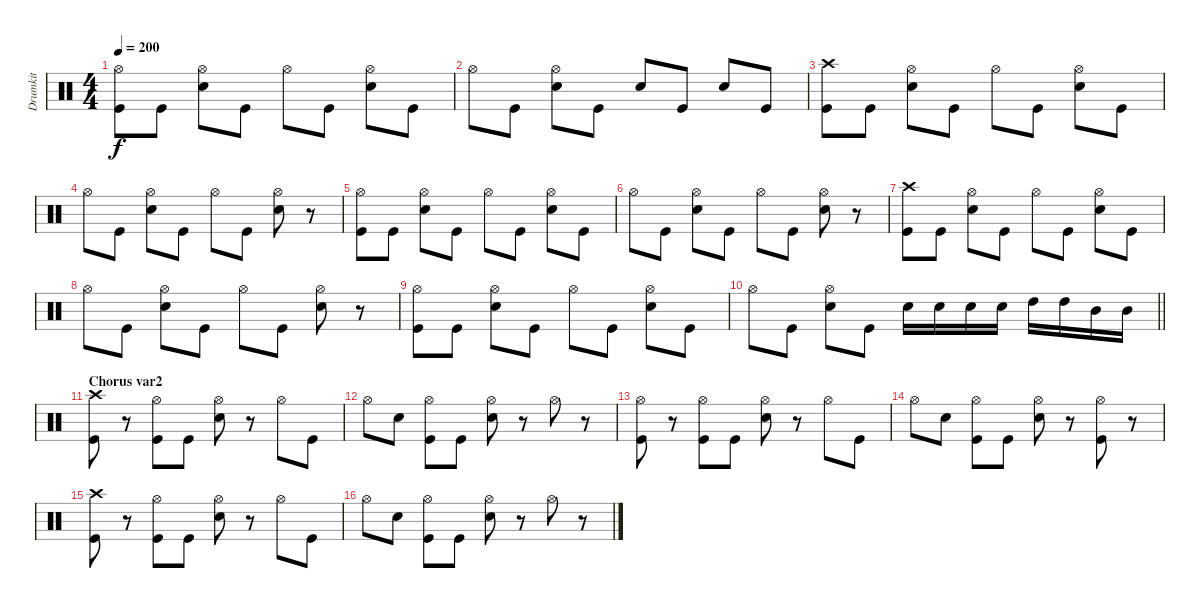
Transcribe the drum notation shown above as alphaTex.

\track ("Drumkit" "Drumkit") {instrument percussion}
\staff {score}
\articulation defaults
\ts (4 4)
\tempo 200
\clef neutral
\ks c
("Hi-Hat (open)" "Kick (hit)").8{dy f} "Kick (hit)".8 ("Hi-Hat (open)" "Snare (hit) 2").8 "Kick (hit)".8 "Hi-Hat (open)".8 "Kick (hit)".8 ("Snare (hit) 2" "Hi-Hat (open)").8 "Kick (hit)".8 |
"Hi-Hat (open)".8 "Kick (hit)".8 ("Hi-Hat (open)" "Snare (hit) 2").8 "Kick (hit)".8 "Snare (hit) 2".8 "Kick (hit)".8 "Snare (hit) 2".8 "Kick (hit)".8 |
("Crash high (hit)" "Kick (hit)").8 "Kick (hit)".8 ("Hi-Hat (open)" "Snare (hit) 2").8 "Kick (hit)".8 "Hi-Hat (open)".8 "Kick (hit)".8 ("Snare (hit) 2" "Hi-Hat (open)").8 "Kick (hit)".8 |
"Hi-Hat (open)".8 "Kick (hit)".8 ("Hi-Hat (open)" "Snare (hit) 2").8 "Kick (hit)".8 "Hi-Hat (open)".8 "Kick (hit)".8 ("Snare (hit) 2" "Hi-Hat (open)").8 r.8 |
("Hi-Hat (open)" "Kick (hit)").8 "Kick (hit)".8 ("Hi-Hat (open)" "Snare (hit) 2").8 "Kick (hit)".8 "Hi-Hat (open)".8 "Kick (hit)".8 ("Snare (hit) 2" "Hi-Hat (open)").8 "Kick (hit)".8 |
"Hi-Hat (open)".8 "Kick (hit)".8 ("Hi-Hat (open)" "Snare (hit) 2").8 "Kick (hit)".8 "Hi-Hat (open)".8 "Kick (hit)".8 ("Snare (hit) 2" "Hi-Hat (open)").8 r.8 |
("Crash high (hit)" "Kick (hit)").8 "Kick (hit)".8 ("Hi-Hat (open)" "Snare (hit) 2").8 "Kick (hit)".8 "Hi-Hat (open)".8 "Kick (hit)".8 ("Snare (hit) 2" "Hi-Hat (open)").8 "Kick (hit)".8 |
"Hi-Hat (open)".8 "Kick (hit)".8 ("Hi-Hat (open)" "Snare (hit) 2").8 "Kick (hit)".8 "Hi-Hat (open)".8 "Kick (hit)".8 ("Snare (hit) 2" "Hi-Hat (open)").8 r.8 |
("Hi-Hat (open)" "Kick (hit)").8 "Kick (hit)".8 ("Hi-Hat (open)" "Snare (hit) 2").8 "Kick (hit)".8 "Hi-Hat (open)".8 "Kick (hit)".8 ("Snare (hit) 2" "Hi-Hat (open)").8 "Kick (hit)".8 |
\barLineRight lightlight "Hi-Hat (open)".8 "Kick (hit)".8
("Hi-Hat (open)" "Snare (hit) 2").8 "Kick (hit)".8 "Snare (hit) 2".16 "Snare (hit) 2".16 "Snare (hit) 2".16 "Snare (hit) 2".16 "High Tom (hit)".16 "High Tom (hit)".16 "Mid Tom (hit)".16 "Mid Tom (hit)".16 |
\section ("" "Chorus var2")
("Kick (hit)" "Crash high (hit)").8 r.8 ("Hi-Hat (open)" "Kick (hit)").8 "Kick (hit)".8 ("Hi-Hat (open)" "Snare (hit) 2").8 r.8 "Hi-Hat (open)".8 "Kick (hit)".8 |
"Hi-Hat (open)".8 "Snare (hit) 2".8 ("Kick (hit)" "Hi-Hat (open)").8 "Kick (hit)".8 ("Snare (hit) 2" "Hi-Hat (open)").8 r.8 "Hi-Hat (open)".8 r.8 |
("Kick (hit)" "Hi-Hat (open)").8 r.8 ("Hi-Hat (open)" "Kick (hit)").8 "Kick (hit)".8 ("Hi-Hat (open)" "Snare (hit) 2").8 r.8 "Hi-Hat (open)".8 "Kick (hit)".8 |
"Hi-Hat (open)".8 "Snare (hit) 2".8 ("Kick (hit)" "Hi-Hat (open)").8 "Kick (hit)".8 ("Snare (hit) 2" "Hi-Hat (open)").8 r.8 ("Hi-Hat (open)" "Kick (hit)").8 r.8 |
("Kick (hit)" "Crash high (hit)").8 r.8 ("Hi-Hat (open)" "Kick (hit)").8 "Kick (hit)".8 ("Hi-Hat (open)" "Snare (hit) 2").8 r.8 "Hi-Hat (open)".8 "Kick (hit)".8 |
"Hi-Hat (open)".8 "Snare (hit) 2".8 ("Kick (hit)" "Hi-Hat (open)").8 "Kick (hit)".8 ("Snare (hit) 2" "Hi-Hat (open)").8 r.8 "Hi-Hat (open)".8 r.8
